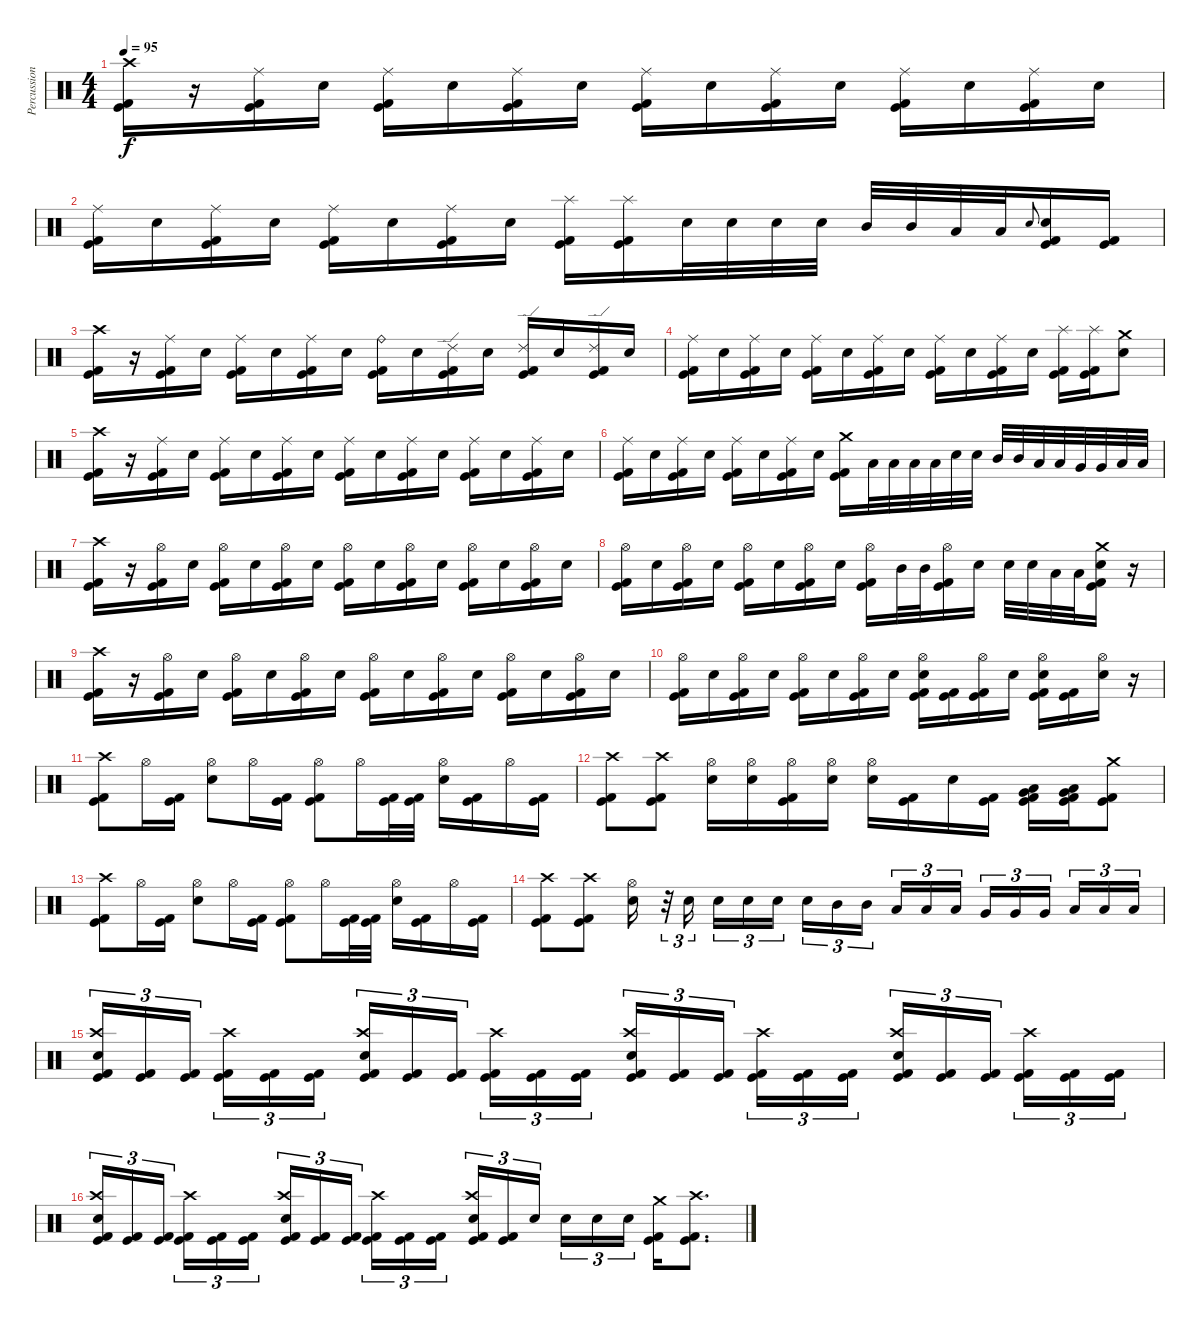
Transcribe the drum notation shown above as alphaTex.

\track ("Percussion" "Percussion") {instrument percussion}
\staff {score}
\articulation defaults
\ts (4 4)
\tempo 95
\clef neutral
\ks c
("Kick (hit) 2" "Kick (hit)" "Crash high (hit)").16{dy f} r.16 ("Kick (hit) 2" "Kick (hit)" "Ride (middle)").16 "Electric Snare (hit)".16 ("Kick (hit) 2" "Kick (hit)" "Ride (middle)").16 "Electric Snare (hit)".16 ("Kick (hit) 2" "Kick (hit)" "Ride (middle)").16 "Electric Snare (hit)".16 ("Kick (hit) 2" "Kick (hit)" "Ride (middle)").16 "Electric Snare (hit)".16 ("Kick (hit) 2" "Kick (hit)" "Ride (middle)").16 "Electric Snare (hit)".16 ("Kick (hit) 2" "Kick (hit)" "Ride (middle)").16 "Electric Snare (hit)".16 ("Kick (hit) 2" "Kick (hit)" "Ride (middle)").16 "Electric Snare (hit)".16 |
("Kick (hit) 2" "Kick (hit)" "Ride (middle)").16 "Electric Snare (hit)".16 ("Kick (hit) 2" "Kick (hit)" "Ride (middle)").16 "Electric Snare (hit)".16 ("Kick (hit) 2" "Kick (hit)" "Ride (middle)").16 "Electric Snare (hit)".16 ("Kick (hit) 2" "Kick (hit)" "Ride (middle)").16 "Electric Snare (hit)".16 ("Kick (hit) 2" "Kick (hit)" "Splash (hit)").16 ("Kick (hit) 2" "Kick (hit)" "Splash (hit)").16 "Electric Snare (hit)".32 "Electric Snare (hit)".32 "Electric Snare (hit)".32 "Electric Snare (hit)".32 "Mid Tom (hit)".32 "Mid Tom (hit)".32 "Low Tom (hit)".32 "Low Tom (hit)".32 "Electric Snare (hit)".8{gr onbeat} ("Kick (hit) 2" "Kick (hit)" "Electric Snare (hit)").16 ("Kick (hit) 2" "Kick (hit)").16 |
("Kick (hit) 2" "Kick (hit)" "Crash high (hit)").16 r.16 ("Kick (hit) 2" "Kick (hit)" "Ride (middle)").16 "Electric Snare (hit)".16 ("Kick (hit) 2" "Kick (hit)" "Ride (middle)").16 "Electric Snare (hit)".16 ("Kick (hit) 2" "Kick (hit)" "Ride (middle)").16 "Electric Snare (hit)".16 ("Kick (hit) 2" "Kick (hit)" "Ride (bell)").16 "Electric Snare (hit)".16 ("Kick (hit) 2" "Kick (hit)" "Ride (edge) 2").16 "Electric Snare (hit)".16 ("Kick (hit) 2" "Kick (hit)" "Ride (edge) 2").16 "Electric Snare (hit)".16 ("Kick (hit) 2" "Kick (hit)" "Ride (edge) 2").16 "Electric Snare (hit)".16 |
("Kick (hit) 2" "Kick (hit)" "Ride (middle)").16 "Electric Snare (hit)".16 ("Kick (hit) 2" "Kick (hit)" "Ride (middle)").16 "Electric Snare (hit)".16 ("Kick (hit) 2" "Kick (hit)" "Ride (middle)").16 "Electric Snare (hit)".16 ("Kick (hit) 2" "Kick (hit)" "Ride (middle)").16 "Electric Snare (hit)".16 ("Kick (hit) 2" "Kick (hit)" "Ride (middle)").16 "Electric Snare (hit)".16 ("Kick (hit) 2" "Kick (hit)" "Ride (middle)").16 "Electric Snare (hit)".16 ("Kick (hit) 2" "Kick (hit)" "Splash (hit)").16 ("Kick (hit) 2" "Kick (hit)" "Splash (hit)").16 ("Electric Snare (hit)" "Crash medium (hit)").8 |
("Kick (hit) 2" "Kick (hit)" "Crash high (hit)").16 r.16 ("Kick (hit) 2" "Kick (hit)" "Ride (middle)").16 "Electric Snare (hit)".16 ("Kick (hit) 2" "Kick (hit)" "Ride (middle)").16 "Electric Snare (hit)".16 ("Kick (hit) 2" "Kick (hit)" "Ride (middle)").16 "Electric Snare (hit)".16 ("Kick (hit) 2" "Kick (hit)" "Ride (middle)").16 "Electric Snare (hit)".16 ("Kick (hit) 2" "Kick (hit)" "Ride (middle)").16 "Electric Snare (hit)".16 ("Kick (hit) 2" "Kick (hit)" "Ride (middle)").16 "Electric Snare (hit)".16 ("Kick (hit) 2" "Kick (hit)" "Ride (middle)").16 "Electric Snare (hit)".16 |
("Kick (hit) 2" "Kick (hit)" "Ride (middle)").16 "Electric Snare (hit)".16 ("Kick (hit) 2" "Kick (hit)" "Ride (middle)").16 "Electric Snare (hit)".16 ("Kick (hit) 2" "Kick (hit)" "Ride (middle)").16 "Electric Snare (hit)".16 ("Kick (hit) 2" "Kick (hit)" "Ride (middle)").16 "Electric Snare (hit)".16 ("Kick (hit) 2" "Kick (hit)" "Crash medium (hit)").16 "Low Tom (hit)".32 "Low Tom (hit)".32 "Low Tom (hit)".32 "Low Tom (hit)".32 "Electric Snare (hit)".32 "Electric Snare (hit)".32 "Mid Tom (hit)".32 "Mid Tom (hit)".32 "Low Tom (hit)".32 "Low Tom (hit)".32 "Very Low Tom (hit)".32 "Very Low Tom (hit)".32 "Low Floor Tom (hit)".32 "Low Floor Tom (hit)".32 |
("Kick (hit) 2" "Kick (hit)" "Crash high (hit)").16 r.16 ("Kick (hit) 2" "Kick (hit)" "Hi-Hat (open)").16 "Electric Snare (hit)".16 ("Kick (hit) 2" "Kick (hit)" "Hi-Hat (open)").16 "Electric Snare (hit)".16 ("Kick (hit) 2" "Kick (hit)" "Hi-Hat (open)").16 "Electric Snare (hit)".16 ("Kick (hit) 2" "Kick (hit)" "Hi-Hat (open)").16 "Electric Snare (hit)".16 ("Kick (hit) 2" "Kick (hit)" "Hi-Hat (open)").16 "Electric Snare (hit)".16 ("Kick (hit) 2" "Kick (hit)" "Hi-Hat (open)").16 "Electric Snare (hit)".16 ("Kick (hit) 2" "Kick (hit)" "Hi-Hat (open)").16 "Electric Snare (hit)".16 |
("Kick (hit) 2" "Kick (hit)" "Hi-Hat (open)").16 "Electric Snare (hit)".16 ("Kick (hit) 2" "Kick (hit)" "Hi-Hat (open)").16 "Electric Snare (hit)".16 ("Kick (hit) 2" "Kick (hit)" "Hi-Hat (open)").16 "Electric Snare (hit)".16 ("Kick (hit) 2" "Kick (hit)" "Hi-Hat (open)").16 "Electric Snare (hit)".16 ("Kick (hit) 2" "Kick (hit)" "Hi-Hat (open)").16 "Mid Tom (hit)".32 "Mid Tom (hit)".32 ("Kick (hit) 2" "Kick (hit)" "Hi-Hat (open)").16 "Electric Snare (hit)".16 "Electric Snare (hit)".32 "Electric Snare (hit)".32 "Low Tom (hit)".32 "Low Tom (hit)".32 ("Kick (hit) 2" "Kick (hit)" "Crash medium (hit)" "Electric Snare (hit)").16 r.16 |
("Kick (hit) 2" "Kick (hit)" "Crash high (hit)").16 r.16 ("Kick (hit) 2" "Kick (hit)" "Hi-Hat (open)").16 "Electric Snare (hit)".16 ("Kick (hit) 2" "Kick (hit)" "Hi-Hat (open)").16 "Electric Snare (hit)".16 ("Kick (hit) 2" "Kick (hit)" "Hi-Hat (open)").16 "Electric Snare (hit)".16 ("Kick (hit) 2" "Kick (hit)" "Hi-Hat (open)").16 "Electric Snare (hit)".16 ("Kick (hit) 2" "Kick (hit)" "Hi-Hat (open)").16 "Electric Snare (hit)".16 ("Kick (hit) 2" "Kick (hit)" "Hi-Hat (open)").16 "Electric Snare (hit)".16 ("Kick (hit) 2" "Kick (hit)" "Hi-Hat (open)").16 "Electric Snare (hit)".16 |
("Kick (hit) 2" "Kick (hit)" "Hi-Hat (open)").16 "Electric Snare (hit)".16 ("Kick (hit) 2" "Kick (hit)" "Hi-Hat (open)").16 "Electric Snare (hit)".16 ("Kick (hit) 2" "Kick (hit)" "Hi-Hat (open)").16 "Electric Snare (hit)".16 ("Kick (hit) 2" "Kick (hit)" "Hi-Hat (open)").16 "Electric Snare (hit)".16 ("Kick (hit) 2" "Kick (hit)" "Electric Snare (hit)" "Hi-Hat (open)").16 ("Kick (hit) 2" "Kick (hit)").16 ("Kick (hit) 2" "Kick (hit)" "Hi-Hat (open)").16 "Electric Snare (hit)".16 ("Kick (hit) 2" "Kick (hit)" "Electric Snare (hit)" "Hi-Hat (open)").16 ("Kick (hit) 2" "Kick (hit)").16 ("Electric Snare (hit)" "Hi-Hat (open)").16 r.16 |
("Kick (hit) 2" "Kick (hit)" "Crash high (hit)").8 "Hi-Hat (open)".16 ("Kick (hit) 2" "Kick (hit)").16 ("Electric Snare (hit)" "Hi-Hat (open)").8 "Hi-Hat (open)".16 ("Kick (hit) 2" "Kick (hit)").16 ("Kick (hit) 2" "Kick (hit)" "Hi-Hat (open)").8 "Hi-Hat (open)".16 ("Kick (hit) 2" "Kick (hit)").32 ("Kick (hit) 2" "Kick (hit)").32 ("Electric Snare (hit)" "Hi-Hat (open)").16 ("Kick (hit) 2" "Kick (hit)").16 "Hi-Hat (open)".16 ("Kick (hit) 2" "Kick (hit)").16 |
("Kick (hit) 2" "Kick (hit)" "Crash high (hit)").8 ("Kick (hit) 2" "Kick (hit)" "Crash high (hit)").8 ("Electric Snare (hit)" "Hi-Hat (open)").16 ("Electric Snare (hit)" "Hi-Hat (open)").16 ("Kick (hit) 2" "Kick (hit)" "Hi-Hat (open)").16 ("Electric Snare (hit)" "Hi-Hat (open)").16 ("Electric Snare (hit)" "Hi-Hat (open)").16 ("Kick (hit) 2" "Kick (hit)").16 "Electric Snare (hit)".16 ("Kick (hit)" "Kick (hit) 2").16 ("Kick (hit)" "Kick (hit) 2" "Very Low Tom (hit)" "Low Floor Tom (hit)").16 ("Kick (hit)" "Kick (hit) 2" "Very Low Tom (hit)" "Low Floor Tom (hit)").16 ("Kick (hit) 2" "Kick (hit)" "Crash medium (hit)").8 |
("Kick (hit) 2" "Kick (hit)" "Crash high (hit)").8 "Hi-Hat (open)".16 ("Kick (hit) 2" "Kick (hit)").16 ("Electric Snare (hit)" "Hi-Hat (open)").8 "Hi-Hat (open)".16 ("Kick (hit) 2" "Kick (hit)").16 ("Kick (hit) 2" "Kick (hit)" "Hi-Hat (open)").8 "Hi-Hat (open)".16 ("Kick (hit) 2" "Kick (hit)").32 ("Kick (hit) 2" "Kick (hit)").32 ("Electric Snare (hit)" "Hi-Hat (open)").16 ("Kick (hit) 2" "Kick (hit)").16 "Hi-Hat (open)".16 ("Kick (hit) 2" "Kick (hit)").16 |
("Kick (hit) 2" "Kick (hit)" "Crash high (hit)").8 ("Kick (hit) 2" "Kick (hit)" "Crash high (hit)").8 ("Electric Snare (hit)" "Hi-Hat (open)").16 r.32{tu (3 2)} "Electric Snare (hit)".16{tu (3 2) beam splitsecondary} "Electric Snare (hit)".16{tu (3 2)} "Electric Snare (hit)".16{tu (3 2)} "Electric Snare (hit)".16{tu (3 2)} "Electric Snare (hit)".16{tu (3 2)} "Mid Tom (hit)".16{tu (3 2)} "Mid Tom (hit)".16{tu (3 2) beam splitsecondary} "Low Tom (hit)".16{tu (3 2)} "Low Tom (hit)".16{tu (3 2)} "Low Tom (hit)".16{tu (3 2)} "Very Low Tom (hit)".16{tu (3 2)} "Very Low Tom (hit)".16{tu (3 2)} "Very Low Tom (hit)".16{tu (3 2) beam splitsecondary} "Low Floor Tom (hit)".16{tu (3 2)} "Low Floor Tom (hit)".16{tu (3 2)} "Low Floor Tom (hit)".16{tu (3 2)} |
("Kick (hit) 2" "Electric Snare (hit)" "Crash high (hit)" "Kick (hit)").16{tu (3 2)} ("Kick (hit) 2" "Kick (hit)").16{tu (3 2)} ("Kick (hit) 2" "Kick (hit)").16{tu (3 2) beam splitsecondary} ("Kick (hit) 2" "Crash high (hit)" "Kick (hit)").16{tu (3 2)} ("Kick (hit) 2" "Kick (hit)").16{tu (3 2)} ("Kick (hit) 2" "Kick (hit)").16{tu (3 2)} ("Kick (hit) 2" "Electric Snare (hit)" "Crash high (hit)" "Kick (hit)").16{tu (3 2)} ("Kick (hit) 2" "Kick (hit)").16{tu (3 2)} ("Kick (hit) 2" "Kick (hit)").16{tu (3 2) beam splitsecondary} ("Kick (hit) 2" "Crash high (hit)" "Kick (hit)").16{tu (3 2)} ("Kick (hit) 2" "Kick (hit)").16{tu (3 2)} ("Kick (hit) 2" "Kick (hit)").16{tu (3 2)} ("Kick (hit) 2" "Electric Snare (hit)" "Crash high (hit)" "Kick (hit)").16{tu (3 2)} ("Kick (hit) 2" "Kick (hit)").16{tu (3 2)} ("Kick (hit) 2" "Kick (hit)").16{tu (3 2) beam splitsecondary} ("Kick (hit) 2" "Crash high (hit)" "Kick (hit)").16{tu (3 2)} ("Kick (hit) 2" "Kick (hit)").16{tu (3 2)} ("Kick (hit) 2" "Kick (hit)").16{tu (3 2)} ("Kick (hit) 2" "Electric Snare (hit)" "Crash high (hit)" "Kick (hit)").16{tu (3 2)} ("Kick (hit) 2" "Kick (hit)").16{tu (3 2)} ("Kick (hit) 2" "Kick (hit)").16{tu (3 2) beam splitsecondary} ("Kick (hit) 2" "Crash high (hit)" "Kick (hit)").16{tu (3 2)} ("Kick (hit) 2" "Kick (hit)").16{tu (3 2)} ("Kick (hit) 2" "Kick (hit)").16{tu (3 2)} |
("Kick (hit) 2" "Electric Snare (hit)" "Crash high (hit)" "Kick (hit)").16{tu (3 2)} ("Kick (hit) 2" "Kick (hit)").16{tu (3 2)} ("Kick (hit) 2" "Kick (hit)").16{tu (3 2) beam splitsecondary} ("Kick (hit) 2" "Crash high (hit)" "Kick (hit)").16{tu (3 2)} ("Kick (hit) 2" "Kick (hit)").16{tu (3 2)} ("Kick (hit) 2" "Kick (hit)").16{tu (3 2)} ("Kick (hit) 2" "Electric Snare (hit)" "Crash high (hit)" "Kick (hit)").16{tu (3 2)} ("Kick (hit) 2" "Kick (hit)").16{tu (3 2)} ("Kick (hit) 2" "Kick (hit)").16{tu (3 2) beam splitsecondary} ("Kick (hit) 2" "Crash high (hit)" "Kick (hit)").16{tu (3 2)} ("Kick (hit) 2" "Kick (hit)").16{tu (3 2)} ("Kick (hit) 2" "Kick (hit)").16{tu (3 2)} ("Kick (hit) 2" "Electric Snare (hit)" "Crash high (hit)" "Kick (hit)").16{tu (3 2)} ("Kick (hit) 2" "Kick (hit)").16{tu (3 2)} "Electric Snare (hit)".16{tu (3 2) beam splitsecondary} "Electric Snare (hit)".16{tu (3 2)} "Electric Snare (hit)".16{tu (3 2)} "Electric Snare (hit)".16{tu (3 2)} ("Kick (hit) 2" "Crash medium (hit)" "Kick (hit)").16 ("Kick (hit) 2" "Crash high (hit)" "Kick (hit)").8{d}
